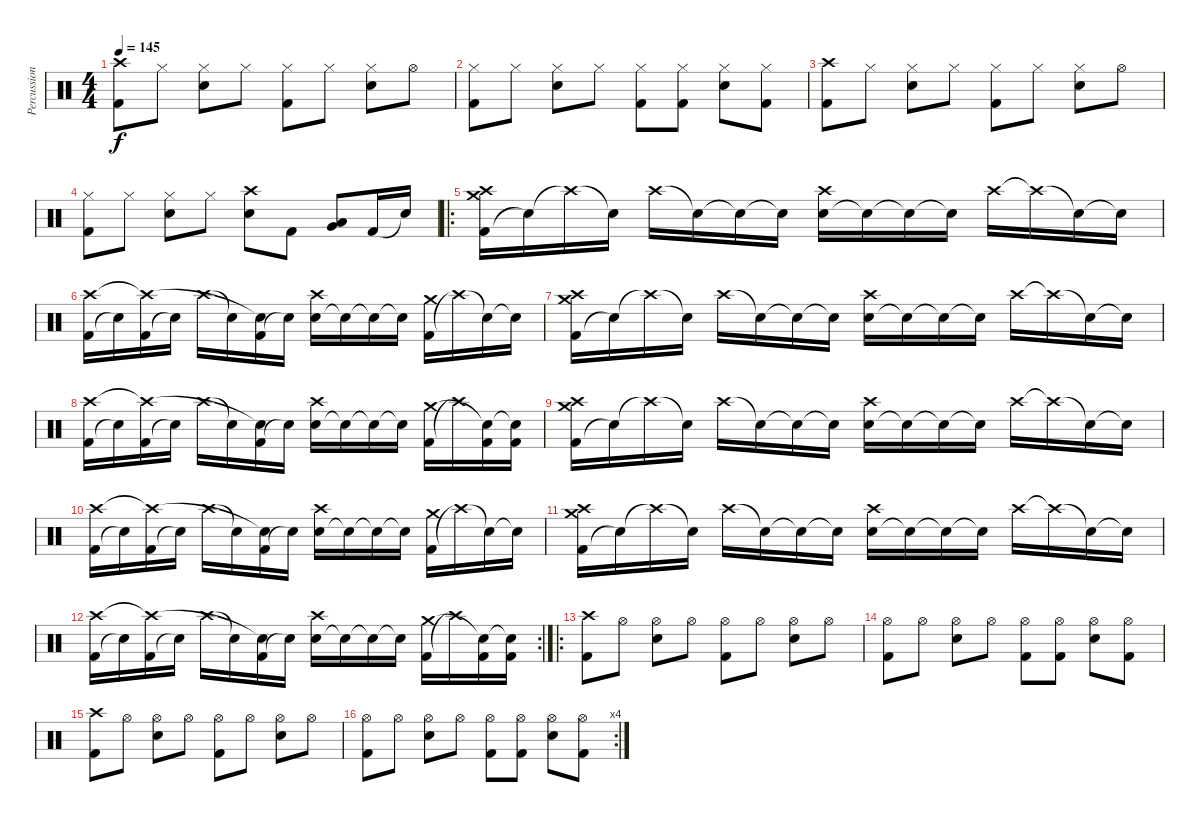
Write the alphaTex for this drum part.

\track ("Percussion" "Percussion") {instrument percussion}
\staff {score}
\articulation defaults
\ts (4 4)
\tempo 145
\clef neutral
\ks c
("Kick (hit) 2" "Crash high (hit)").8{dy f} "Hi-Hat (closed)".8 ("Electric Snare (hit)" "Hi-Hat (closed)").8 "Hi-Hat (closed)".8 ("Kick (hit) 2" "Hi-Hat (closed)").8 "Hi-Hat (closed)".8 ("Electric Snare (hit)" "Hi-Hat (closed)").8 "Hi-Hat (open)".8 |
("Kick (hit) 2" "Hi-Hat (closed)").8 "Hi-Hat (closed)".8 ("Electric Snare (hit)" "Hi-Hat (closed)").8 "Hi-Hat (closed)".8 ("Kick (hit) 2" "Hi-Hat (closed)").8 ("Kick (hit) 2" "Hi-Hat (closed)").8 ("Electric Snare (hit)" "Hi-Hat (closed)").8 ("Kick (hit) 2" "Hi-Hat (closed)").8 |
("Kick (hit) 2" "Crash high (hit)").8 "Hi-Hat (closed)".8 ("Electric Snare (hit)" "Hi-Hat (closed)").8 "Hi-Hat (closed)".8 ("Kick (hit) 2" "Hi-Hat (closed)").8 "Hi-Hat (closed)".8 ("Electric Snare (hit)" "Hi-Hat (closed)").8 "Hi-Hat (open)".8 |
("Kick (hit) 2" "Hi-Hat (closed)").8 "Hi-Hat (closed)".8 ("Electric Snare (hit)" "Hi-Hat (closed)").8 "Hi-Hat (closed)".8 ("Electric Snare (hit)" "Crash high (hit)").8 "Kick (hit) 2".8 ("Low Floor Tom (hit)" "Very Low Tom (hit)").8 "Kick (hit) 2".16 "Electric Snare (hit)"{t}.16 |
\ro
("Kick (hit) 2" "Crash high (hit)" "Crash medium (hit)").16 "Snare (hit)"{t}.16 "Crash high (hit)"{t}.16 "Snare (hit)"{t}.16 "Crash high (hit)".16 "Snare (hit)"{t}.16 "Snare (hit)"{t}.16 "Snare (hit)"{t}.16 ("Electric Snare (hit)" "Crash high (hit)").16 "Snare (hit)"{t}.16 "Snare (hit)"{t}.16 "Snare (hit)"{t}.16 "Crash high (hit)".16 "Crash high (hit)"{t}.16 "Snare (hit)"{t}.16 "Snare (hit)"{t}.16 |
("Kick (hit) 2" "Crash high (hit)").16 "Snare (hit)"{t}.16 ("Kick (hit) 2" "Crash high (hit)"{t}).16 "Snare (hit)"{t}.16 "Crash high (hit)".16 "Snare (hit)"{t}.16 ("Kick (hit) 2" "Snare (hit)"{t}).16 "Snare (hit)"{t}.16 ("Electric Snare (hit)" "Crash high (hit)").16 "Snare (hit)"{t}.16 "Snare (hit)"{t}.16 "Snare (hit)"{t}.16 ("Kick (hit) 2" "Crash medium (hit)").16 "Crash high (hit)"{t}.16 "Snare (hit)"{t}.16 "Snare (hit)"{t}.16 |
("Kick (hit) 2" "Crash high (hit)" "Crash medium (hit)").16 "Snare (hit)"{t}.16 "Crash high (hit)"{t}.16 "Snare (hit)"{t}.16 "Crash high (hit)".16 "Snare (hit)"{t}.16 "Snare (hit)"{t}.16 "Snare (hit)"{t}.16 ("Electric Snare (hit)" "Crash high (hit)").16 "Snare (hit)"{t}.16 "Snare (hit)"{t}.16 "Snare (hit)"{t}.16 "Crash high (hit)".16 "Crash high (hit)"{t}.16 "Snare (hit)"{t}.16 "Snare (hit)"{t}.16 |
("Kick (hit) 2" "Crash high (hit)").16 "Snare (hit)"{t}.16 ("Kick (hit) 2" "Crash high (hit)"{t}).16 "Snare (hit)"{t}.16 "Crash high (hit)".16 "Snare (hit)"{t}.16 ("Kick (hit) 2" "Snare (hit)"{t}).16 "Snare (hit)"{t}.16 ("Electric Snare (hit)" "Crash high (hit)").16 "Snare (hit)"{t}.16 "Snare (hit)"{t}.16 "Snare (hit)"{t}.16 ("Kick (hit) 2" "Crash medium (hit)").16 "Crash high (hit)"{t}.16 ("Kick (hit) 2" "Snare (hit)"{t}).16 ("Kick (hit) 2" "Snare (hit)"{t}).16 |
("Kick (hit) 2" "Crash high (hit)" "Crash medium (hit)").16 "Snare (hit)"{t}.16 "Crash high (hit)"{t}.16 "Snare (hit)"{t}.16 "Crash high (hit)".16 "Snare (hit)"{t}.16 "Snare (hit)"{t}.16 "Snare (hit)"{t}.16 ("Electric Snare (hit)" "Crash high (hit)").16 "Snare (hit)"{t}.16 "Snare (hit)"{t}.16 "Snare (hit)"{t}.16 "Crash high (hit)".16 "Crash high (hit)"{t}.16 "Snare (hit)"{t}.16 "Snare (hit)"{t}.16 |
("Kick (hit) 2" "Crash high (hit)").16 "Snare (hit)"{t}.16 ("Kick (hit) 2" "Crash high (hit)"{t}).16 "Snare (hit)"{t}.16 "Crash high (hit)".16 "Snare (hit)"{t}.16 ("Kick (hit) 2" "Snare (hit)"{t}).16 "Snare (hit)"{t}.16 ("Electric Snare (hit)" "Crash high (hit)").16 "Snare (hit)"{t}.16 "Snare (hit)"{t}.16 "Snare (hit)"{t}.16 ("Kick (hit) 2" "Crash medium (hit)").16 "Crash high (hit)"{t}.16 "Snare (hit)"{t}.16 "Snare (hit)"{t}.16 |
("Kick (hit) 2" "Crash high (hit)" "Crash medium (hit)").16 "Snare (hit)"{t}.16 "Crash high (hit)"{t}.16 "Snare (hit)"{t}.16 "Crash high (hit)".16 "Snare (hit)"{t}.16 "Snare (hit)"{t}.16 "Snare (hit)"{t}.16 ("Electric Snare (hit)" "Crash high (hit)").16 "Snare (hit)"{t}.16 "Snare (hit)"{t}.16 "Snare (hit)"{t}.16 "Crash high (hit)".16 "Crash high (hit)"{t}.16 "Snare (hit)"{t}.16 "Snare (hit)"{t}.16 |
\rc 2
("Kick (hit) 2" "Crash high (hit)").16 "Snare (hit)"{t}.16 ("Kick (hit) 2" "Crash high (hit)"{t}).16 "Snare (hit)"{t}.16 "Crash high (hit)".16 "Snare (hit)"{t}.16 ("Kick (hit) 2" "Snare (hit)"{t}).16 "Snare (hit)"{t}.16 ("Electric Snare (hit)" "Crash high (hit)").16 "Snare (hit)"{t}.16 "Snare (hit)"{t}.16 "Snare (hit)"{t}.16 ("Kick (hit) 2" "Crash medium (hit)").16 "Crash high (hit)"{t}.16 ("Kick (hit) 2" "Snare (hit)"{t}).16 ("Kick (hit) 2" "Snare (hit)"{t}).16 |
\ro
("Kick (hit) 2" "Crash high (hit)").8 "Hi-Hat (open)".8 ("Electric Snare (hit)" "Hi-Hat (open)").8 "Hi-Hat (open)".8 ("Kick (hit) 2" "Hi-Hat (open)").8 "Hi-Hat (open)".8 ("Electric Snare (hit)" "Hi-Hat (open)").8 "Hi-Hat (open)".8 |
("Kick (hit) 2" "Hi-Hat (open)").8 "Hi-Hat (open)".8 ("Electric Snare (hit)" "Hi-Hat (open)").8 "Hi-Hat (open)".8 ("Kick (hit) 2" "Hi-Hat (open)").8 ("Kick (hit) 2" "Hi-Hat (open)").8 ("Electric Snare (hit)" "Hi-Hat (open)").8 ("Kick (hit) 2" "Hi-Hat (open)").8 |
("Kick (hit) 2" "Crash high (hit)").8 "Hi-Hat (open)".8 ("Electric Snare (hit)" "Hi-Hat (open)").8 "Hi-Hat (open)".8 ("Kick (hit) 2" "Hi-Hat (open)").8 "Hi-Hat (open)".8 ("Electric Snare (hit)" "Hi-Hat (open)").8 "Hi-Hat (open)".8 |
\rc 4
("Kick (hit) 2" "Hi-Hat (open)").8 "Hi-Hat (open)".8 ("Electric Snare (hit)" "Hi-Hat (open)").8 "Hi-Hat (open)".8 ("Kick (hit) 2" "Hi-Hat (open)").8 ("Kick (hit) 2" "Hi-Hat (open)").8 ("Electric Snare (hit)" "Hi-Hat (open)").8 ("Kick (hit) 2" "Hi-Hat (open)").8
